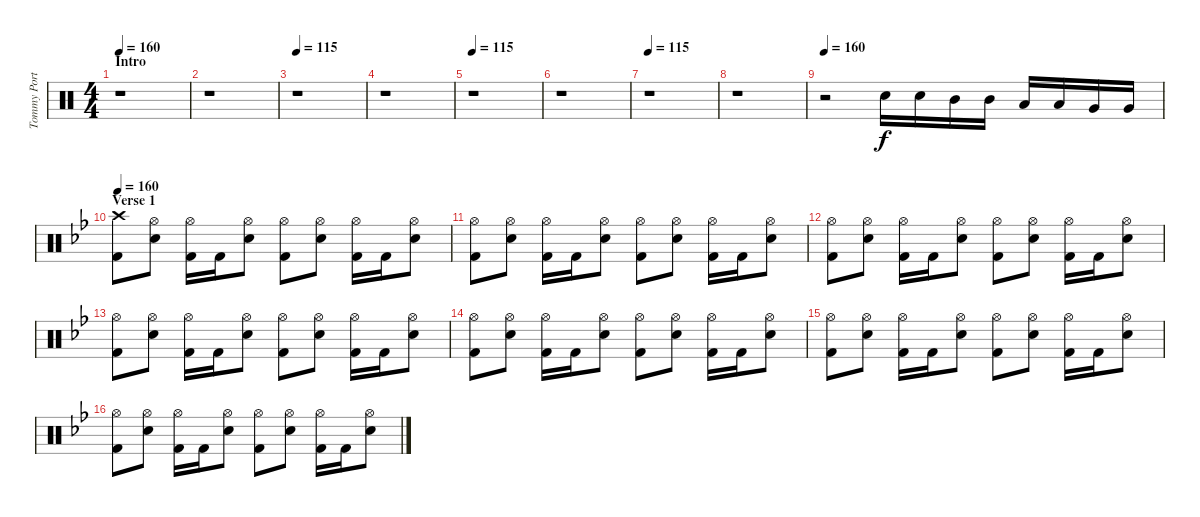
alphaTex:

\track ("Tommy Portimo" "Tommy Port") {instrument percussion}
\staff {score}
\articulation defaults
\ts (4 4)
\section ("" "Intro")
\tempo 160
\tempo 115
\tempo 160
\clef neutral
\ks c
r.1{dy f} |
r.1 |
\tempo 115
r.1 |
r.1 |
\tempo 115
r.1 |
r.1 |
\tempo 115
r.1 |
r.1 |
\tempo 160
r.2 "Snare (hit) 2".16 "Snare (hit) 2".16 "Mid Tom (hit)".16 "Mid Tom (hit)".16 "Low Tom (hit)".16 "Low Tom (hit)".16 "Very Low Tom (hit)".16 "Very Low Tom (hit)".16 |
\section ("" "Verse 1")
\tempo 160
\ks gminor
("Crash high (hit)" "Kick (hit) 2").8 ("Hi-Hat (open)" "Snare (hit) 2").8 ("Hi-Hat (open)" "Kick (hit) 2").16 "Kick (hit) 2".16 ("Hi-Hat (open)" "Snare (hit) 2").8 ("Hi-Hat (open)" "Kick (hit) 2").8 ("Hi-Hat (open)" "Snare (hit) 2").8 ("Hi-Hat (open)" "Kick (hit) 2").16 "Kick (hit) 2".16 ("Hi-Hat (open)" "Snare (hit) 2").8 |
("Hi-Hat (open)" "Kick (hit) 2").8 ("Hi-Hat (open)" "Snare (hit) 2").8 ("Hi-Hat (open)" "Kick (hit) 2").16 "Kick (hit) 2".16 ("Hi-Hat (open)" "Snare (hit) 2").8 ("Hi-Hat (open)" "Kick (hit) 2").8 ("Hi-Hat (open)" "Snare (hit) 2").8 ("Hi-Hat (open)" "Kick (hit) 2").16 "Kick (hit) 2".16 ("Hi-Hat (open)" "Snare (hit) 2").8 |
("Hi-Hat (open)" "Kick (hit) 2").8 ("Hi-Hat (open)" "Snare (hit) 2").8 ("Hi-Hat (open)" "Kick (hit) 2").16 "Kick (hit) 2".16 ("Hi-Hat (open)" "Snare (hit) 2").8 ("Hi-Hat (open)" "Kick (hit) 2").8 ("Hi-Hat (open)" "Snare (hit) 2").8 ("Hi-Hat (open)" "Kick (hit) 2").16 "Kick (hit) 2".16 ("Hi-Hat (open)" "Snare (hit) 2").8 |
("Hi-Hat (open)" "Kick (hit) 2").8 ("Hi-Hat (open)" "Snare (hit) 2").8 ("Hi-Hat (open)" "Kick (hit) 2").16 "Kick (hit) 2".16 ("Hi-Hat (open)" "Snare (hit) 2").8 ("Hi-Hat (open)" "Kick (hit) 2").8 ("Hi-Hat (open)" "Snare (hit) 2").8 ("Hi-Hat (open)" "Kick (hit) 2").16 "Kick (hit) 2".16 ("Hi-Hat (open)" "Snare (hit) 2").8 |
("Hi-Hat (open)" "Kick (hit) 2").8 ("Hi-Hat (open)" "Snare (hit) 2").8 ("Hi-Hat (open)" "Kick (hit) 2").16 "Kick (hit) 2".16 ("Hi-Hat (open)" "Snare (hit) 2").8 ("Hi-Hat (open)" "Kick (hit) 2").8 ("Hi-Hat (open)" "Snare (hit) 2").8 ("Hi-Hat (open)" "Kick (hit) 2").16 "Kick (hit) 2".16 ("Hi-Hat (open)" "Snare (hit) 2").8 |
("Hi-Hat (open)" "Kick (hit) 2").8 ("Hi-Hat (open)" "Snare (hit) 2").8 ("Hi-Hat (open)" "Kick (hit) 2").16 "Kick (hit) 2".16 ("Hi-Hat (open)" "Snare (hit) 2").8 ("Hi-Hat (open)" "Kick (hit) 2").8 ("Hi-Hat (open)" "Snare (hit) 2").8 ("Hi-Hat (open)" "Kick (hit) 2").16 "Kick (hit) 2".16 ("Hi-Hat (open)" "Snare (hit) 2").8 |
("Hi-Hat (open)" "Kick (hit) 2").8 ("Hi-Hat (open)" "Snare (hit) 2").8 ("Hi-Hat (open)" "Kick (hit) 2").16 "Kick (hit) 2".16 ("Hi-Hat (open)" "Snare (hit) 2").8 ("Hi-Hat (open)" "Kick (hit) 2").8 ("Hi-Hat (open)" "Snare (hit) 2").8 ("Hi-Hat (open)" "Kick (hit) 2").16 "Kick (hit) 2".16 ("Hi-Hat (open)" "Snare (hit) 2").8
